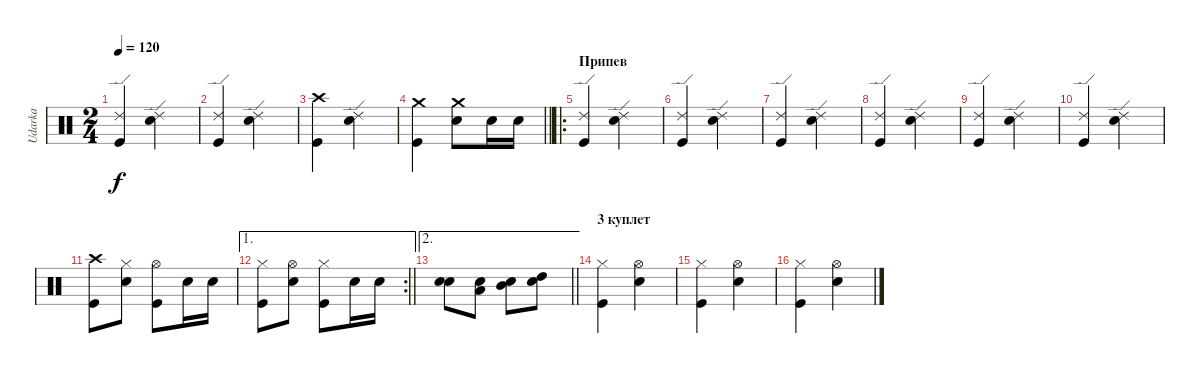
\track ("Udarka" "Udarka") {solo instrument percussion}
\staff {score}
\articulation defaults
\ts (2 4)
\tempo 120
\clef neutral
\ks c
("Kick (hit)" "Ride (edge) 2").4{dy f} ("Snare (hit) 2" "Ride (edge) 2").4 |
("Kick (hit)" "Ride (edge) 2").4 ("Snare (hit) 2" "Ride (edge) 2").4 |
("Kick (hit)" "Crash high (hit)").4 ("Snare (hit) 2" "Ride (edge) 2").4 |
\barLineRight lightlight
("Kick (hit)" "Crash medium (hit)").4 ("Snare (hit) 2" "Crash medium (hit)").8 "Snare (hit) 2".16 "Snare (hit) 2".16 |
\ro
\section ("" "Припев")
("Kick (hit)" "Ride (edge) 2").4 ("Snare (hit) 2" "Ride (edge) 2").4 |
("Kick (hit)" "Ride (edge) 2").4 ("Snare (hit) 2" "Ride (edge) 2").4 |
("Kick (hit)" "Ride (edge) 2").4 ("Snare (hit) 2" "Ride (edge) 2").4 |
("Kick (hit)" "Ride (edge) 2").4 ("Snare (hit) 2" "Ride (edge) 2").4 |
("Kick (hit)" "Ride (edge) 2").4 ("Snare (hit) 2" "Ride (edge) 2").4 |
("Kick (hit)" "Ride (edge) 2").4 ("Snare (hit) 2" "Ride (edge) 2").4 |
("Kick (hit)" "Crash high (hit)").8 ("Snare (hit) 2" "Hi-Hat (closed)").8 ("Kick (hit)" "Hi-Hat (open)").8 "Snare (hit) 2".16 "Snare (hit) 2".16 |
\ae 1
\rc 2
\barLineRight lightlight
("Kick (hit)" "Hi-Hat (closed)").8 ("Snare (hit) 2" "Hi-Hat (open)").8 ("Kick (hit)" "Hi-Hat (closed)").8 "Snare (hit) 2".16 "Snare (hit) 2".16 |
\ae 2
\barLineRight lightlight
("Snare (hit) 2" "Snare (hit) 2").8 ("Snare (hit) 2" "Low Tom (hit)").8 ("Snare (hit) 2" "Mid Tom (hit)").8 ("Snare (hit) 2" "High Tom (hit)").8 |
\section ("" "3 куплет")
("Kick (hit)" "Hi-Hat (closed)").4 ("Snare (hit) 2" "Hi-Hat (open)").4 |
("Kick (hit)" "Hi-Hat (closed)").4 ("Snare (hit) 2" "Hi-Hat (open)").4 |
("Kick (hit)" "Hi-Hat (closed)").4 ("Snare (hit) 2" "Hi-Hat (open)").4
